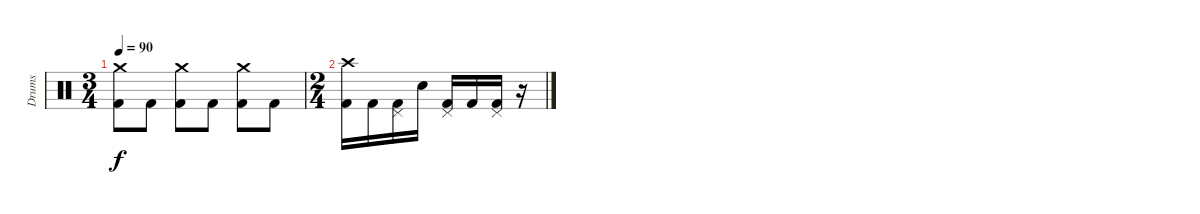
\track ("Drums" "Drums") {instrument percussion}
\staff {score}
\articulation defaults
\ts (3 4)
\tempo 90
\clef neutral
\ks c
("Crash medium (hit)" "Kick (hit) 2").8{dy f} "Kick (hit) 2".8 ("Crash medium (hit)" "Kick (hit) 2").8 "Kick (hit) 2".8 ("Crash medium (hit)" "Kick (hit) 2").8 "Kick (hit) 2".8 |
\ts (2 4)
("Crash high (hit)" "Kick (hit) 2").16 "Kick (hit) 2".16 ("Pedal Hi-Hat (hit)" "Kick (hit) 2").16 "Snare (hit) 2".16 ("Pedal Hi-Hat (hit)" "Kick (hit) 2").16 "Kick (hit) 2".16 ("Pedal Hi-Hat (hit)" "Kick (hit) 2").16 r.16
